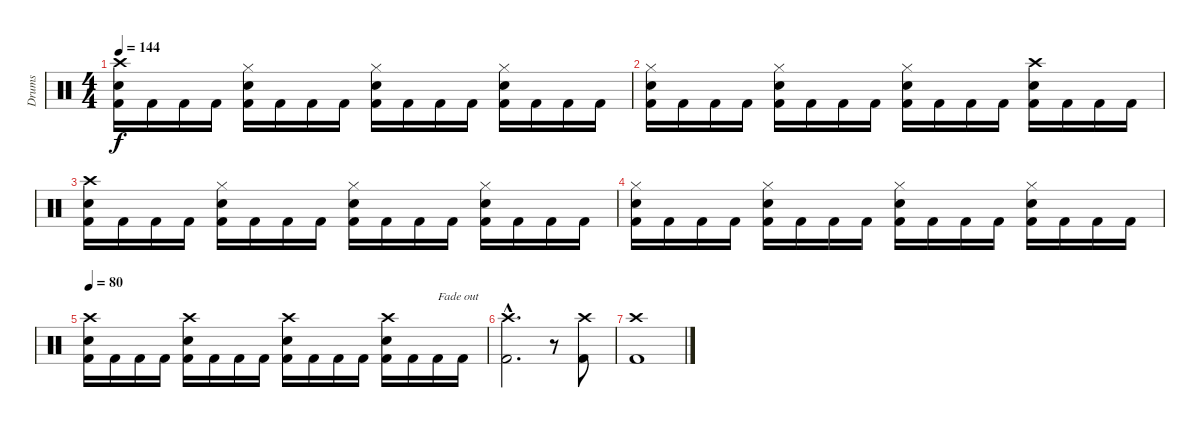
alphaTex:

\track ("Drums" "Drums") {instrument percussion}
\staff {score}
\articulation defaults
\ts (4 4)
\tempo 144
\clef neutral
\ks c
("Crash high (hit)" "Snare (hit) 2" "Kick (hit) 2").16{dy f} "Kick (hit) 2".16 "Kick (hit) 2".16 "Kick (hit) 2".16 ("Hi-Hat (closed)" "Snare (hit) 2" "Kick (hit) 2").16 "Kick (hit) 2".16 "Kick (hit) 2".16 "Kick (hit) 2".16 ("Hi-Hat (closed)" "Snare (hit) 2" "Kick (hit) 2").16 "Kick (hit) 2".16 "Kick (hit) 2".16 "Kick (hit) 2".16 ("Hi-Hat (closed)" "Snare (hit) 2" "Kick (hit) 2").16 "Kick (hit) 2".16 "Kick (hit) 2".16 "Kick (hit) 2".16 |
("Hi-Hat (closed)" "Snare (hit) 2" "Kick (hit) 2").16 "Kick (hit) 2".16 "Kick (hit) 2".16 "Kick (hit) 2".16 ("Hi-Hat (closed)" "Snare (hit) 2" "Kick (hit) 2").16 "Kick (hit) 2".16 "Kick (hit) 2".16 "Kick (hit) 2".16 ("Hi-Hat (closed)" "Snare (hit) 2" "Kick (hit) 2").16 "Kick (hit) 2".16 "Kick (hit) 2".16 "Kick (hit) 2".16 ("Crash high (hit)" "Snare (hit) 2" "Kick (hit) 2").16 "Kick (hit) 2".16 "Kick (hit) 2".16 "Kick (hit) 2".16 |
("Crash high (hit)" "Snare (hit) 2" "Kick (hit) 2").16 "Kick (hit) 2".16 "Kick (hit) 2".16 "Kick (hit) 2".16 ("Hi-Hat (closed)" "Snare (hit) 2" "Kick (hit) 2").16 "Kick (hit) 2".16 "Kick (hit) 2".16 "Kick (hit) 2".16 ("Hi-Hat (closed)" "Snare (hit) 2" "Kick (hit) 2").16 "Kick (hit) 2".16 "Kick (hit) 2".16 "Kick (hit) 2".16 ("Hi-Hat (closed)" "Snare (hit) 2" "Kick (hit) 2").16 "Kick (hit) 2".16 "Kick (hit) 2".16 "Kick (hit) 2".16 |
("Hi-Hat (closed)" "Snare (hit) 2" "Kick (hit) 2").16 "Kick (hit) 2".16 "Kick (hit) 2".16 "Kick (hit) 2".16 ("Hi-Hat (closed)" "Snare (hit) 2" "Kick (hit) 2").16 "Kick (hit) 2".16 "Kick (hit) 2".16 "Kick (hit) 2".16 ("Hi-Hat (closed)" "Snare (hit) 2" "Kick (hit) 2").16 "Kick (hit) 2".16 "Kick (hit) 2".16 "Kick (hit) 2".16 ("Hi-Hat (closed)" "Snare (hit) 2" "Kick (hit) 2").16 "Kick (hit) 2".16 "Kick (hit) 2".16 "Kick (hit) 2".16 |
\tempo 80
("Crash high (hit)" "Snare (hit) 2" "Kick (hit) 2").16 "Kick (hit) 2".16 "Kick (hit) 2".16 "Kick (hit) 2".16 ("Crash high (hit)" "Snare (hit) 2" "Kick (hit) 2").16 "Kick (hit) 2".16 "Kick (hit) 2".16 "Kick (hit) 2".16 ("Crash high (hit)" "Snare (hit) 2" "Kick (hit) 2").16 "Kick (hit) 2".16 "Kick (hit) 2".16 "Kick (hit) 2".16 ("Crash high (hit)" "Snare (hit) 2" "Kick (hit) 2").16 "Kick (hit) 2".16 "Kick (hit) 2".16{txt "Fade out"} "Kick (hit) 2".16 |
("Crash high (hit)"{hac} "Kick (hit) 2"{hac}).2{d} r.8 ("Crash high (hit)" "Kick (hit) 2").8 |
("Crash high (hit)" "Kick (hit) 2").1
